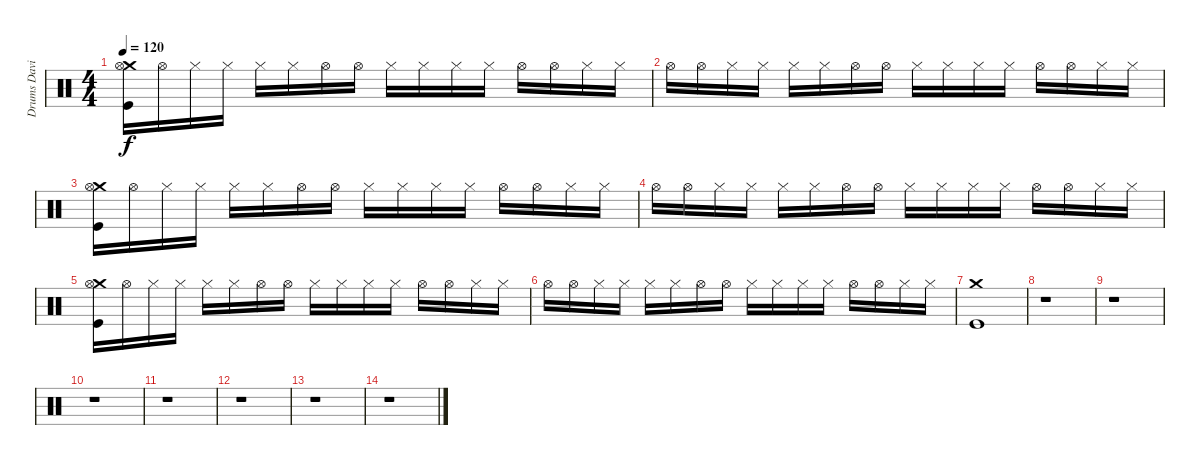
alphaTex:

\track ("Drums David" "Drums Davi") {instrument percussion}
\staff {score}
\articulation defaults
\ts (4 4)
\tempo 120
\clef neutral
\ks c
("Crash medium (hit)" "Hi-Hat (open)" "Kick (hit)").16{dy f} "Hi-Hat (open)".16 "Hi-Hat (closed)".16 "Hi-Hat (closed)".16 "Hi-Hat (closed)".16 "Hi-Hat (closed)".16 "Hi-Hat (open)".16 "Hi-Hat (open)".16 "Hi-Hat (closed)".16 "Hi-Hat (closed)".16 "Hi-Hat (closed)".16 "Hi-Hat (closed)".16 "Hi-Hat (open)".16 "Hi-Hat (open)".16 "Hi-Hat (closed)".16 "Hi-Hat (closed)".16 |
"Hi-Hat (open)".16 "Hi-Hat (open)".16 "Hi-Hat (closed)".16 "Hi-Hat (closed)".16 "Hi-Hat (closed)".16 "Hi-Hat (closed)".16 "Hi-Hat (open)".16 "Hi-Hat (open)".16 "Hi-Hat (closed)".16 "Hi-Hat (closed)".16 "Hi-Hat (closed)".16 "Hi-Hat (closed)".16 "Hi-Hat (open)".16 "Hi-Hat (open)".16 "Hi-Hat (closed)".16 "Hi-Hat (closed)".16 |
("Crash medium (hit)" "Hi-Hat (open)" "Kick (hit)").16 "Hi-Hat (open)".16 "Hi-Hat (closed)".16 "Hi-Hat (closed)".16 "Hi-Hat (closed)".16 "Hi-Hat (closed)".16 "Hi-Hat (open)".16 "Hi-Hat (open)".16 "Hi-Hat (closed)".16 "Hi-Hat (closed)".16 "Hi-Hat (closed)".16 "Hi-Hat (closed)".16 "Hi-Hat (open)".16 "Hi-Hat (open)".16 "Hi-Hat (closed)".16 "Hi-Hat (closed)".16 |
"Hi-Hat (open)".16 "Hi-Hat (open)".16 "Hi-Hat (closed)".16 "Hi-Hat (closed)".16 "Hi-Hat (closed)".16 "Hi-Hat (closed)".16 "Hi-Hat (open)".16 "Hi-Hat (open)".16 "Hi-Hat (closed)".16 "Hi-Hat (closed)".16 "Hi-Hat (closed)".16 "Hi-Hat (closed)".16 "Hi-Hat (open)".16 "Hi-Hat (open)".16 "Hi-Hat (closed)".16 "Hi-Hat (closed)".16 |
("Crash medium (hit)" "Hi-Hat (open)" "Kick (hit)").16 "Hi-Hat (open)".16 "Hi-Hat (closed)".16 "Hi-Hat (closed)".16 "Hi-Hat (closed)".16 "Hi-Hat (closed)".16 "Hi-Hat (open)".16 "Hi-Hat (open)".16 "Hi-Hat (closed)".16 "Hi-Hat (closed)".16 "Hi-Hat (closed)".16 "Hi-Hat (closed)".16 "Hi-Hat (open)".16 "Hi-Hat (open)".16 "Hi-Hat (closed)".16 "Hi-Hat (closed)".16 |
"Hi-Hat (open)".16 "Hi-Hat (open)".16 "Hi-Hat (closed)".16 "Hi-Hat (closed)".16 "Hi-Hat (closed)".16 "Hi-Hat (closed)".16 "Hi-Hat (open)".16 "Hi-Hat (open)".16 "Hi-Hat (closed)".16 "Hi-Hat (closed)".16 "Hi-Hat (closed)".16 "Hi-Hat (closed)".16 "Hi-Hat (open)".16 "Hi-Hat (open)".16 "Hi-Hat (closed)".16 "Hi-Hat (closed)".16 |
("Crash medium (hit)" "Kick (hit)").1 |
r.1 |
r.1 |
r.1 |
r.1 |
r.1 |
r.1 |
r.1
